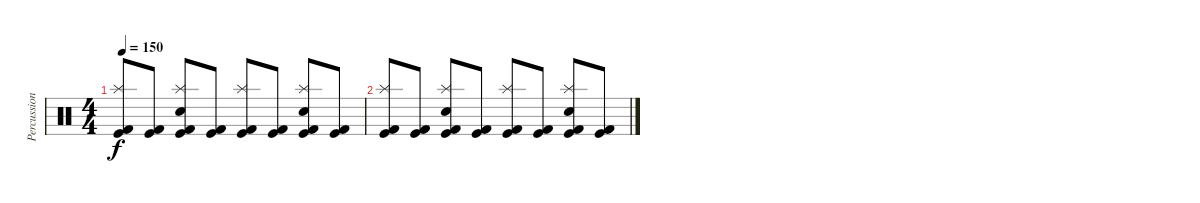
\track ("Percussion" "Percussion") {instrument percussion}
\staff {score}
\articulation defaults
\ts (4 4)
\tempo 150
\clef neutral
\ks c
("Kick (hit) 2" "Splash (hit)" "Kick (hit)").8{dy f} ("Kick (hit) 2" "Kick (hit)").8 ("Kick (hit) 2" "Splash (hit)" "Snare (hit) 2" "Kick (hit)").8 ("Kick (hit) 2" "Kick (hit)").8 ("Kick (hit) 2" "Splash (hit)" "Kick (hit)").8 ("Kick (hit) 2" "Kick (hit)").8 ("Kick (hit) 2" "Splash (hit)" "Snare (hit) 2" "Kick (hit)").8 ("Kick (hit) 2" "Kick (hit)").8 |
("Kick (hit) 2" "Splash (hit)" "Kick (hit)").8 ("Kick (hit) 2" "Kick (hit)").8 ("Kick (hit) 2" "Splash (hit)" "Snare (hit) 2" "Kick (hit)").8 ("Kick (hit) 2" "Kick (hit)").8 ("Kick (hit) 2" "Splash (hit)" "Kick (hit)").8 ("Kick (hit) 2" "Kick (hit)").8 ("Kick (hit) 2" "Splash (hit)" "Snare (hit) 2" "Kick (hit)").8 ("Kick (hit) 2" "Kick (hit)").8
